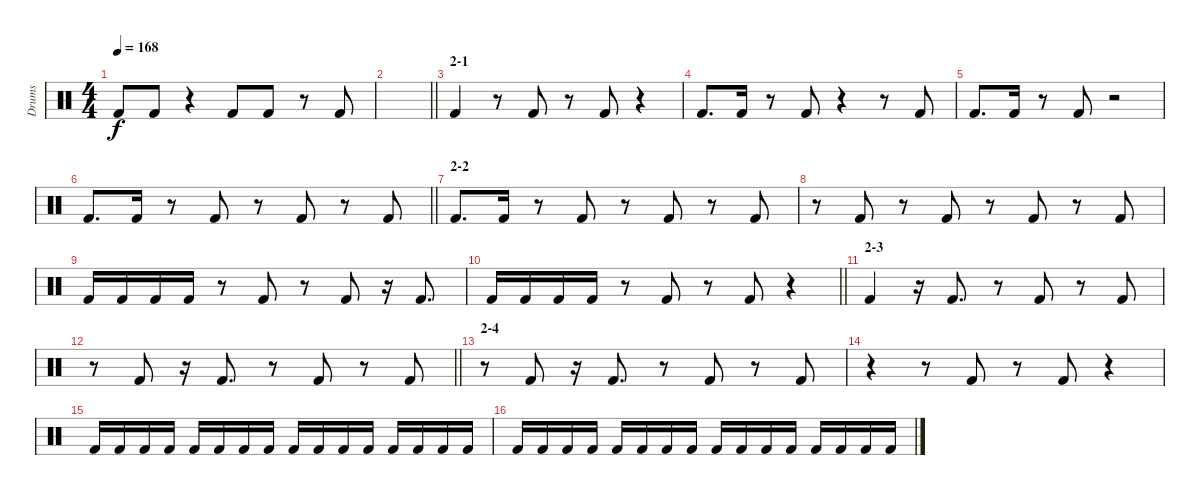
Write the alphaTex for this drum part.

\track ("Drums" "Drums") {instrument percussion}
\staff {score}
\articulation defaults
\ts (4 4)
\tempo 168
\clef neutral
\ks c "Kick (hit) 2".8{dy f} "Kick (hit) 2".8
r.4 "Kick (hit) 2".8 "Kick (hit) 2".8 r.8 "Kick (hit) 2".8 |
\barLineRight lightlight
|
\section ("" "2-1")
"Kick (hit) 2".4 r.8 "Kick (hit) 2".8 r.8 "Kick (hit) 2".8 r.4 |
"Kick (hit) 2".8{d} "Kick (hit) 2".16 r.8 "Kick (hit) 2".8 r.4 r.8 "Kick (hit) 2".8 |
"Kick (hit) 2".8{d} "Kick (hit) 2".16 r.8 "Kick (hit) 2".8 r.2 |
\barLineRight lightlight "Kick (hit) 2".8{d} "Kick (hit) 2".16
r.8 "Kick (hit) 2".8 r.8 "Kick (hit) 2".8 r.8 "Kick (hit) 2".8 |
\section ("" "2-2")
"Kick (hit) 2".8{d} "Kick (hit) 2".16 r.8 "Kick (hit) 2".8 r.8 "Kick (hit) 2".8 r.8 "Kick (hit) 2".8 |
r.8 "Kick (hit) 2".8 r.8 "Kick (hit) 2".8 r.8 "Kick (hit) 2".8 r.8 "Kick (hit) 2".8 |
"Kick (hit) 2".16 "Kick (hit) 2".16 "Kick (hit) 2".16 "Kick (hit) 2".16 r.8 "Kick (hit) 2".8 r.8 "Kick (hit) 2".8 r.16 "Kick (hit) 2".8{d} |
\barLineRight lightlight "Kick (hit) 2".16 "Kick (hit) 2".16 "Kick (hit) 2".16 "Kick (hit) 2".16
r.8 "Kick (hit) 2".8 r.8 "Kick (hit) 2".8 r.4 |
\section ("" "2-3")
"Kick (hit) 2".4 r.16 "Kick (hit) 2".8{d} r.8 "Kick (hit) 2".8 r.8 "Kick (hit) 2".8 |
\barLineRight lightlight
r.8 "Kick (hit) 2".8 r.16 "Kick (hit) 2".8{d} r.8 "Kick (hit) 2".8 r.8 "Kick (hit) 2".8 |
\section ("" "2-4")
r.8 "Kick (hit) 2".8 r.16 "Kick (hit) 2".8{d} r.8 "Kick (hit) 2".8 r.8 "Kick (hit) 2".8 |
r.4 r.8 "Kick (hit) 2".8 r.8 "Kick (hit) 2".8 r.4 |
"Kick (hit) 2".16 "Kick (hit) 2".16 "Kick (hit) 2".16 "Kick (hit) 2".16 "Kick (hit) 2".16 "Kick (hit) 2".16 "Kick (hit) 2".16 "Kick (hit) 2".16 "Kick (hit) 2".16 "Kick (hit) 2".16 "Kick (hit) 2".16 "Kick (hit) 2".16 "Kick (hit) 2".16 "Kick (hit) 2".16 "Kick (hit) 2".16 "Kick (hit) 2".16 |
"Kick (hit) 2".16 "Kick (hit) 2".16 "Kick (hit) 2".16 "Kick (hit) 2".16 "Kick (hit) 2".16 "Kick (hit) 2".16 "Kick (hit) 2".16 "Kick (hit) 2".16 "Kick (hit) 2".16 "Kick (hit) 2".16 "Kick (hit) 2".16 "Kick (hit) 2".16 "Kick (hit) 2".16 "Kick (hit) 2".16 "Kick (hit) 2".16 "Kick (hit) 2".16
